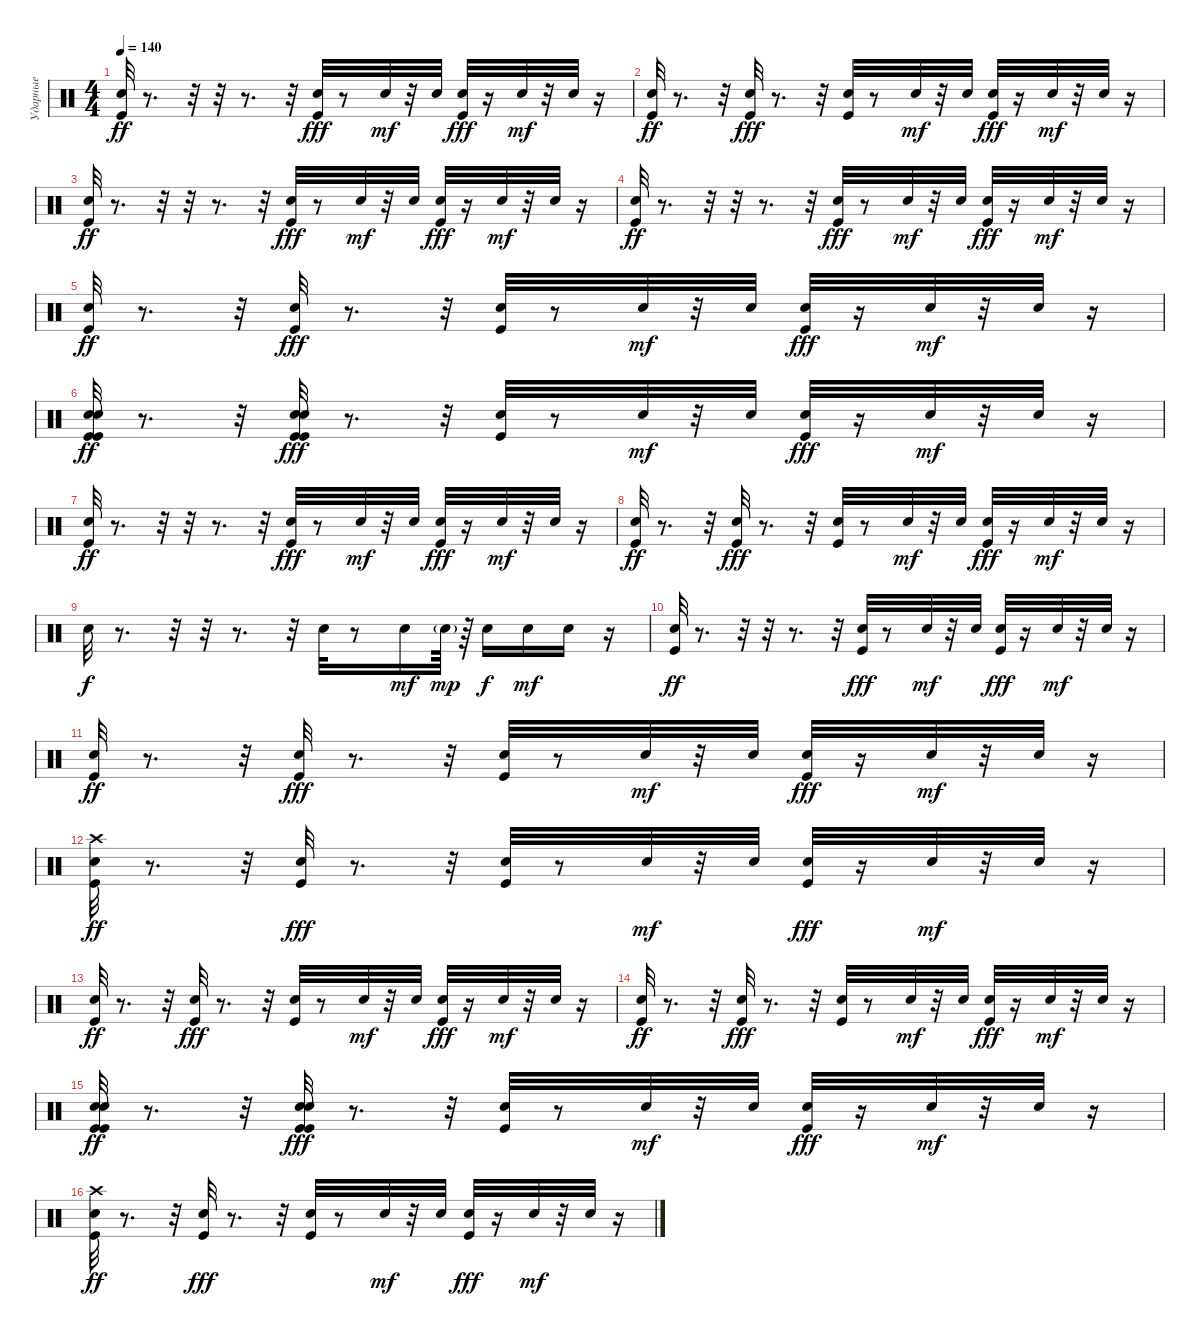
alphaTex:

\track ("Ударные" "Ударные") {instrument percussion}
\staff {score}
\articulation defaults
\ts (4 4)
\tempo 140
\clef neutral
\ks c
("Kick (hit)" "Electric Snare (hit)").32{dy ff} r.8{d} r.32 r.32 r.8{d} r.32 ("Kick (hit)" "Electric Snare (hit)").32{dy fff} r.8 "Electric Snare (hit)".32{dy mf} r.32 "Electric Snare (hit)".32 ("Kick (hit)" "Electric Snare (hit)").32{dy fff} r.16 "Electric Snare (hit)".32{dy mf} r.32 "Electric Snare (hit)".32 r.16 |
("Kick (hit)" "Electric Snare (hit)").32{dy ff} r.8{d} r.32 ("Kick (hit)" "Electric Snare (hit)").32{dy fff} r.8{d} r.32 ("Kick (hit)" "Electric Snare (hit)").32 r.8 "Electric Snare (hit)".32{dy mf} r.32 "Electric Snare (hit)".32 ("Kick (hit)" "Electric Snare (hit)").32{dy fff} r.16 "Electric Snare (hit)".32{dy mf} r.32 "Electric Snare (hit)".32 r.16 |
("Kick (hit)" "Electric Snare (hit)").32{dy ff} r.8{d} r.32 r.32 r.8{d} r.32 ("Kick (hit)" "Electric Snare (hit)").32{dy fff} r.8 "Electric Snare (hit)".32{dy mf} r.32 "Electric Snare (hit)".32 ("Kick (hit)" "Electric Snare (hit)").32{dy fff} r.16 "Electric Snare (hit)".32{dy mf} r.32 "Electric Snare (hit)".32 r.16 |
("Kick (hit)" "Electric Snare (hit)").32{dy ff} r.8{d} r.32 r.32 r.8{d} r.32 ("Kick (hit)" "Electric Snare (hit)").32{dy fff} r.8 "Electric Snare (hit)".32{dy mf} r.32 "Electric Snare (hit)".32 ("Kick (hit)" "Electric Snare (hit)").32{dy fff} r.16 "Electric Snare (hit)".32{dy mf} r.32 "Electric Snare (hit)".32 r.16 |
("Kick (hit)" "Electric Snare (hit)").32{dy ff} r.8{d} r.32 ("Kick (hit)" "Electric Snare (hit)").32{dy fff} r.8{d} r.32 ("Kick (hit)" "Electric Snare (hit)").32 r.8 "Electric Snare (hit)".32{dy mf} r.32 "Electric Snare (hit)".32 ("Kick (hit)" "Electric Snare (hit)").32{dy fff} r.16 "Electric Snare (hit)".32{dy mf} r.32 "Electric Snare (hit)".32 r.16 |
("Kick (hit)" "Kick (hit)" "Electric Snare (hit)" "Electric Snare (hit)").32{dy ff} r.8{d} r.32 ("Kick (hit)" "Kick (hit)" "Electric Snare (hit)" "Electric Snare (hit)").32{dy fff} r.8{d} r.32 ("Kick (hit)" "Electric Snare (hit)").32 r.8 "Electric Snare (hit)".32{dy mf} r.32 "Electric Snare (hit)".32 ("Kick (hit)" "Electric Snare (hit)").32{dy fff} r.16 "Electric Snare (hit)".32{dy mf} r.32 "Electric Snare (hit)".32 r.16 |
("Kick (hit)" "Electric Snare (hit)").32{dy ff} r.8{d} r.32 r.32 r.8{d} r.32 ("Kick (hit)" "Electric Snare (hit)").32{dy fff} r.8 "Electric Snare (hit)".32{dy mf} r.32 "Electric Snare (hit)".32 ("Kick (hit)" "Electric Snare (hit)").32{dy fff} r.16 "Electric Snare (hit)".32{dy mf} r.32 "Electric Snare (hit)".32 r.16 |
("Kick (hit)" "Electric Snare (hit)").32{dy ff} r.8{d} r.32 ("Kick (hit)" "Electric Snare (hit)").32{dy fff} r.8{d} r.32 ("Kick (hit)" "Electric Snare (hit)").32 r.8 "Electric Snare (hit)".32{dy mf} r.32 "Electric Snare (hit)".32 ("Kick (hit)" "Electric Snare (hit)").32{dy fff} r.16 "Electric Snare (hit)".32{dy mf} r.32 "Electric Snare (hit)".32 r.16 |
"Electric Snare (hit)".32{dy f} r.8{d} r.32 r.32 r.8{d} r.32 "Electric Snare (hit)".32 r.8 "Electric Snare (hit)".16{dy mf} "Electric Snare (hit)"{g}.64{dy mp} r.64 "Electric Snare (hit)".16{dy f} "Electric Snare (hit)".16{dy mf} "Electric Snare (hit)".16 r.16 |
("Kick (hit)" "Electric Snare (hit)").32{dy ff} r.8{d} r.32 r.32 r.8{d} r.32 ("Kick (hit)" "Electric Snare (hit)").32{dy fff} r.8 "Electric Snare (hit)".32{dy mf} r.32 "Electric Snare (hit)".32 ("Kick (hit)" "Electric Snare (hit)").32{dy fff} r.16 "Electric Snare (hit)".32{dy mf} r.32 "Electric Snare (hit)".32 r.16 |
("Kick (hit)" "Electric Snare (hit)").32{dy ff} r.8{d} r.32 ("Kick (hit)" "Electric Snare (hit)").32{dy fff} r.8{d} r.32 ("Kick (hit)" "Electric Snare (hit)").32 r.8 "Electric Snare (hit)".32{dy mf} r.32 "Electric Snare (hit)".32 ("Kick (hit)" "Electric Snare (hit)").32{dy fff} r.16 "Electric Snare (hit)".32{dy mf} r.32 "Electric Snare (hit)".32 r.16 |
("Kick (hit)" "Electric Snare (hit)" "Crash high (hit)").32{dy ff} r.8{d} r.32 ("Kick (hit)" "Electric Snare (hit)").32{dy fff} r.8{d} r.32 ("Kick (hit)" "Electric Snare (hit)").32 r.8 "Electric Snare (hit)".32{dy mf} r.32 "Electric Snare (hit)".32 ("Kick (hit)" "Electric Snare (hit)").32{dy fff} r.16 "Electric Snare (hit)".32{dy mf} r.32 "Electric Snare (hit)".32 r.16 |
("Kick (hit)" "Electric Snare (hit)").32{dy ff} r.8{d} r.32 ("Kick (hit)" "Electric Snare (hit)").32{dy fff} r.8{d} r.32 ("Kick (hit)" "Electric Snare (hit)").32 r.8 "Electric Snare (hit)".32{dy mf} r.32 "Electric Snare (hit)".32 ("Kick (hit)" "Electric Snare (hit)").32{dy fff} r.16 "Electric Snare (hit)".32{dy mf} r.32 "Electric Snare (hit)".32 r.16 |
("Kick (hit)" "Electric Snare (hit)").32{dy ff} r.8{d} r.32 ("Kick (hit)" "Electric Snare (hit)").32{dy fff} r.8{d} r.32 ("Kick (hit)" "Electric Snare (hit)").32 r.8 "Electric Snare (hit)".32{dy mf} r.32 "Electric Snare (hit)".32 ("Kick (hit)" "Electric Snare (hit)").32{dy fff} r.16 "Electric Snare (hit)".32{dy mf} r.32 "Electric Snare (hit)".32 r.16 |
("Kick (hit)" "Kick (hit)" "Electric Snare (hit)" "Electric Snare (hit)").32{dy ff} r.8{d} r.32 ("Kick (hit)" "Kick (hit)" "Electric Snare (hit)" "Electric Snare (hit)").32{dy fff} r.8{d} r.32 ("Kick (hit)" "Electric Snare (hit)").32 r.8 "Electric Snare (hit)".32{dy mf} r.32 "Electric Snare (hit)".32 ("Kick (hit)" "Electric Snare (hit)").32{dy fff} r.16 "Electric Snare (hit)".32{dy mf} r.32 "Electric Snare (hit)".32 r.16 |
("Kick (hit)" "Electric Snare (hit)" "Crash high (hit)").32{dy ff} r.8{d} r.32 ("Kick (hit)" "Electric Snare (hit)").32{dy fff} r.8{d} r.32 ("Kick (hit)" "Electric Snare (hit)").32 r.8 "Electric Snare (hit)".32{dy mf} r.32 "Electric Snare (hit)".32 ("Kick (hit)" "Electric Snare (hit)").32{dy fff} r.16 "Electric Snare (hit)".32{dy mf} r.32 "Electric Snare (hit)".32 r.16
